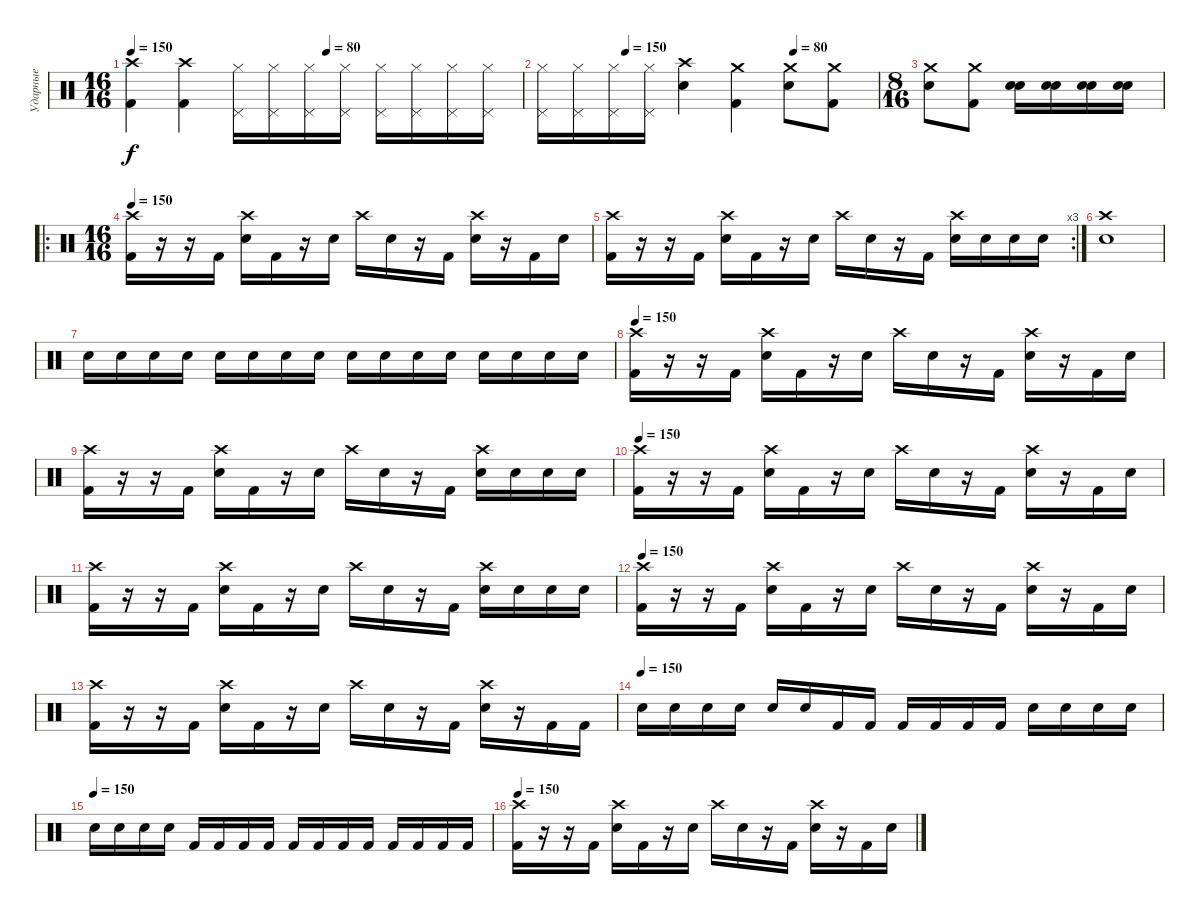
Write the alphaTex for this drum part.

\track ("Ударные" "Ударные") {instrument percussion}
\staff {score}
\articulation defaults
\ts (16 16)
\tempo 150
\tempo (80 0.5)
\clef neutral
\ks c
("Crash high (hit)" "Kick (hit) 2").4{dy f} ("Crash high (hit)" "Kick (hit) 2").4 ("Hi-Hat (closed)" "Pedal Hi-Hat (hit)").16 ("Hi-Hat (closed)" "Pedal Hi-Hat (hit)").16 ("Hi-Hat (closed)" "Pedal Hi-Hat (hit)").16 ("Hi-Hat (closed)" "Pedal Hi-Hat (hit)").16 ("Hi-Hat (closed)" "Pedal Hi-Hat (hit)").16 ("Hi-Hat (closed)" "Pedal Hi-Hat (hit)").16 ("Hi-Hat (closed)" "Pedal Hi-Hat (hit)").16 ("Hi-Hat (closed)" "Pedal Hi-Hat (hit)").16 |
\tempo (150 0.25)
\tempo (80 0.75)
("Hi-Hat (closed)" "Pedal Hi-Hat (hit)").16 ("Hi-Hat (closed)" "Pedal Hi-Hat (hit)").16 ("Hi-Hat (closed)" "Pedal Hi-Hat (hit)").16 ("Hi-Hat (closed)" "Pedal Hi-Hat (hit)").16 ("Crash high (hit)" "Snare (hit) 2").4 ("Crash medium (hit)" "Kick (hit) 2").4 ("Electric Snare (hit)" "Crash medium (hit)").8 ("Kick (hit) 2" "Crash medium (hit)").8 |
\ts (8 16)
("Crash medium (hit)" "Electric Snare (hit)").8 ("Kick (hit) 2" "Crash medium (hit)").8 ("Snare (hit) 2" "Electric Snare (hit)").16 ("Electric Snare (hit)" "Snare (hit) 2").16 ("Electric Snare (hit)" "Snare (hit) 2").16 ("Snare (hit) 2" "Electric Snare (hit)").16 |
\ro
\ts (16 16)
\tempo 150
("Crash high (hit)" "Kick (hit) 2").16 r.16 r.16 "Kick (hit) 2".16 ("Crash high (hit)" "Electric Snare (hit)").16 "Kick (hit) 2".16 r.16 "Electric Snare (hit)".16 "Crash high (hit)".16 "Electric Snare (hit)".16 r.16 "Kick (hit) 2".16 ("Crash high (hit)" "Electric Snare (hit)").16 r.16 "Kick (hit) 2".16 "Electric Snare (hit)".16 |
\rc 3
("Crash high (hit)" "Kick (hit) 2").16 r.16 r.16 "Kick (hit) 2".16 ("Crash high (hit)" "Electric Snare (hit)").16 "Kick (hit) 2".16 r.16 "Electric Snare (hit)".16 "Crash high (hit)".16 "Electric Snare (hit)".16 r.16 "Kick (hit) 2".16 ("Crash high (hit)" "Electric Snare (hit)").16 "Electric Snare (hit)".16 "Electric Snare (hit)".16 "Electric Snare (hit)".16 |
("Crash high (hit)" "Snare (hit) 2").1 |
"Electric Snare (hit)".16 "Electric Snare (hit)".16 "Electric Snare (hit)".16 "Electric Snare (hit)".16 "Electric Snare (hit)".16 "Electric Snare (hit)".16 "Electric Snare (hit)".16 "Electric Snare (hit)".16 "Electric Snare (hit)".16 "Electric Snare (hit)".16 "Electric Snare (hit)".16 "Electric Snare (hit)".16 "Electric Snare (hit)".16 "Electric Snare (hit)".16 "Electric Snare (hit)".16 "Electric Snare (hit)".16 |
\tempo 150
("Crash high (hit)" "Kick (hit) 2").16 r.16 r.16 "Kick (hit) 2".16 ("Crash high (hit)" "Electric Snare (hit)").16 "Kick (hit) 2".16 r.16 "Electric Snare (hit)".16 "Crash high (hit)".16 "Electric Snare (hit)".16 r.16 "Kick (hit) 2".16 ("Crash high (hit)" "Electric Snare (hit)").16 r.16 "Kick (hit) 2".16 "Electric Snare (hit)".16 |
("Crash high (hit)" "Kick (hit) 2").16 r.16 r.16 "Kick (hit) 2".16 ("Crash high (hit)" "Electric Snare (hit)").16 "Kick (hit) 2".16 r.16 "Electric Snare (hit)".16 "Crash high (hit)".16 "Electric Snare (hit)".16 r.16 "Kick (hit) 2".16 ("Crash high (hit)" "Electric Snare (hit)").16 "Electric Snare (hit)".16 "Electric Snare (hit)".16 "Electric Snare (hit)".16 |
\tempo 150
("Crash high (hit)" "Kick (hit) 2").16 r.16 r.16 "Kick (hit) 2".16 ("Crash high (hit)" "Electric Snare (hit)").16 "Kick (hit) 2".16 r.16 "Electric Snare (hit)".16 "Crash high (hit)".16 "Electric Snare (hit)".16 r.16 "Kick (hit) 2".16 ("Crash high (hit)" "Electric Snare (hit)").16 r.16 "Kick (hit) 2".16 "Electric Snare (hit)".16 |
("Crash high (hit)" "Kick (hit) 2").16 r.16 r.16 "Kick (hit) 2".16 ("Crash high (hit)" "Electric Snare (hit)").16 "Kick (hit) 2".16 r.16 "Electric Snare (hit)".16 "Crash high (hit)".16 "Electric Snare (hit)".16 r.16 "Kick (hit) 2".16 ("Crash high (hit)" "Electric Snare (hit)").16 "Electric Snare (hit)".16 "Electric Snare (hit)".16 "Electric Snare (hit)".16 |
\tempo 150
("Crash high (hit)" "Kick (hit) 2").16 r.16 r.16 "Kick (hit) 2".16 ("Crash high (hit)" "Electric Snare (hit)").16 "Kick (hit) 2".16 r.16 "Electric Snare (hit)".16 "Crash high (hit)".16 "Electric Snare (hit)".16 r.16 "Kick (hit) 2".16 ("Crash high (hit)" "Electric Snare (hit)").16 r.16 "Kick (hit) 2".16 "Electric Snare (hit)".16 |
("Crash high (hit)" "Kick (hit) 2").16 r.16 r.16 "Kick (hit) 2".16 ("Crash high (hit)" "Electric Snare (hit)").16 "Kick (hit) 2".16 r.16 "Electric Snare (hit)".16 "Crash high (hit)".16 "Electric Snare (hit)".16 r.16 "Kick (hit) 2".16 ("Crash high (hit)" "Electric Snare (hit)").16 r.16 "Kick (hit) 2".16 "Kick (hit) 2".16 |
\tempo (150)
"Electric Snare (hit)".16 "Electric Snare (hit)".16 "Electric Snare (hit)".16 "Electric Snare (hit)".16 "Electric Snare (hit)".16 "Electric Snare (hit)".16 "Kick (hit) 2".16 "Kick (hit) 2".16 "Kick (hit) 2".16 "Kick (hit) 2".16 "Kick (hit) 2".16 "Kick (hit) 2".16 "Electric Snare (hit)".16 "Electric Snare (hit)".16 "Electric Snare (hit)".16 "Electric Snare (hit)".16 |
\tempo (150)
"Electric Snare (hit)".16 "Electric Snare (hit)".16 "Electric Snare (hit)".16 "Electric Snare (hit)".16 "Kick (hit) 2".16 "Kick (hit) 2".16 "Kick (hit) 2".16 "Kick (hit) 2".16 "Kick (hit) 2".16 "Kick (hit) 2".16 "Kick (hit) 2".16 "Kick (hit) 2".16 "Kick (hit) 2".16 "Kick (hit) 2".16 "Kick (hit) 2".16 "Kick (hit) 2".16 |
\tempo 150
("Crash high (hit)" "Kick (hit) 2").16 r.16 r.16 "Kick (hit) 2".16 ("Crash high (hit)" "Electric Snare (hit)").16 "Kick (hit) 2".16 r.16 "Electric Snare (hit)".16 "Crash high (hit)".16 "Electric Snare (hit)".16 r.16 "Kick (hit) 2".16 ("Crash high (hit)" "Electric Snare (hit)").16 r.16 "Kick (hit) 2".16 "Electric Snare (hit)".16
